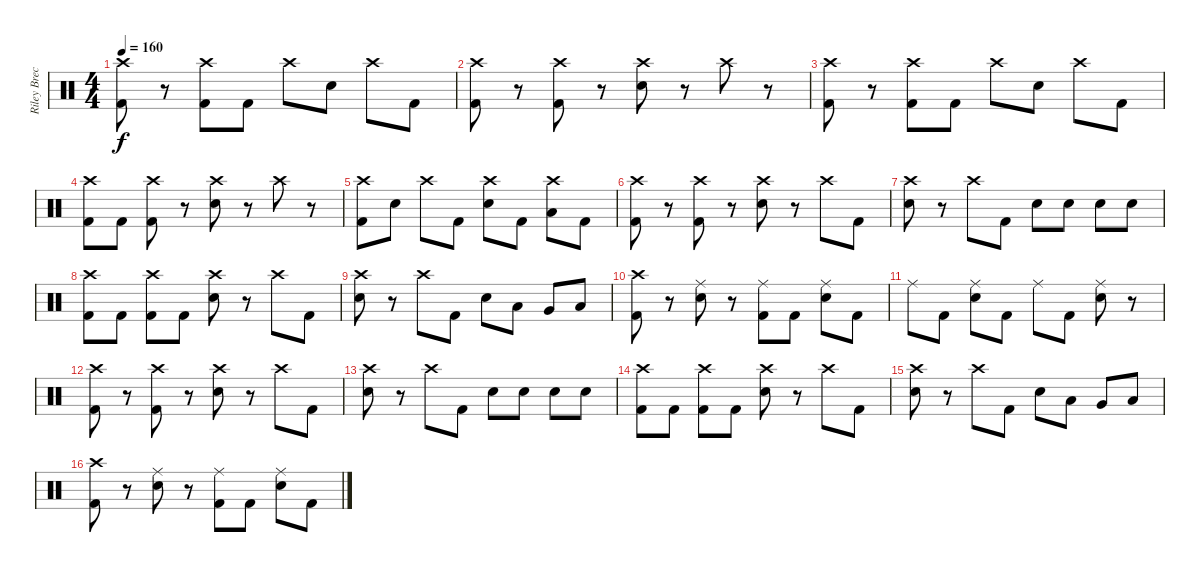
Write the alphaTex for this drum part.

\track ("Riley Breckenridge" "Riley Brec") {instrument percussion}
\staff {score}
\articulation defaults
\ts (4 4)
\tempo 160
\clef neutral
\ks c
("Kick (hit) 2" "Crash high (hit)").8{dy f} r.8 ("Kick (hit) 2" "Crash high (hit)").8 "Kick (hit) 2".8 "Crash high (hit)".8 "Electric Snare (hit)".8 "Crash high (hit)".8 "Kick (hit) 2".8 |
("Kick (hit) 2" "Crash high (hit)").8 r.8 ("Kick (hit) 2" "Crash high (hit)").8 r.8 ("Electric Snare (hit)" "Crash high (hit)").8 r.8 "Crash high (hit)".8 r.8 |
("Kick (hit) 2" "Crash high (hit)").8 r.8 ("Kick (hit) 2" "Crash high (hit)").8 "Kick (hit) 2".8 "Crash high (hit)".8 "Electric Snare (hit)".8 "Crash high (hit)".8 "Kick (hit) 2".8 |
("Kick (hit) 2" "Crash high (hit)").8 "Kick (hit) 2".8 ("Kick (hit) 2" "Crash high (hit)").8 r.8 ("Electric Snare (hit)" "Crash high (hit)").8 r.8 "Crash high (hit)".8 r.8 |
("Kick (hit) 2" "Crash high (hit)").8 "Electric Snare (hit)".8 "Crash high (hit)".8 "Kick (hit) 2".8 ("Electric Snare (hit)" "Crash high (hit)").8 "Kick (hit) 2".8 ("Low Floor Tom (hit)" "Crash high (hit)").8 "Kick (hit) 2".8 |
("Kick (hit) 2" "Crash high (hit)").8 r.8 ("Kick (hit) 2" "Crash high (hit)").8 r.8 ("Electric Snare (hit)" "Crash high (hit)").8 r.8 "Crash high (hit)".8 "Kick (hit) 2".8 |
("Electric Snare (hit)" "Crash high (hit)").8 r.8 "Crash high (hit)".8 "Kick (hit) 2".8 "Electric Snare (hit)".8 "Electric Snare (hit)".8 "Electric Snare (hit)".8 "Electric Snare (hit)".8 |
("Kick (hit) 2" "Crash high (hit)").8 "Kick (hit) 2".8 ("Kick (hit) 2" "Crash high (hit)").8 "Kick (hit) 2".8 ("Electric Snare (hit)" "Crash high (hit)").8 r.8 "Crash high (hit)".8 "Kick (hit) 2".8 |
("Electric Snare (hit)" "Crash high (hit)").8 r.8 "Crash high (hit)".8 "Kick (hit) 2".8 "Electric Snare (hit)".8 "Low Tom (hit)".8 "Very Low Tom (hit)".8 "Low Floor Tom (hit)".8 |
("Kick (hit) 2" "Crash high (hit)").8 r.8 ("Electric Snare (hit)" "Ride (middle)").8 r.8 ("Kick (hit) 2" "Ride (middle)").8 "Kick (hit) 2".8 ("Electric Snare (hit)" "Ride (middle)").8 "Kick (hit) 2".8 |
"Ride (middle)".8 "Kick (hit) 2".8 ("Electric Snare (hit)" "Ride (middle)").8 "Kick (hit) 2".8 "Ride (middle)".8 "Kick (hit) 2".8 ("Electric Snare (hit)" "Ride (middle)").8 r.8 |
("Kick (hit) 2" "Crash high (hit)").8 r.8 ("Kick (hit) 2" "Crash high (hit)").8 r.8 ("Electric Snare (hit)" "Crash high (hit)").8 r.8 "Crash high (hit)".8 "Kick (hit) 2".8 |
("Electric Snare (hit)" "Crash high (hit)").8 r.8 "Crash high (hit)".8 "Kick (hit) 2".8 "Electric Snare (hit)".8 "Electric Snare (hit)".8 "Electric Snare (hit)".8 "Electric Snare (hit)".8 |
("Kick (hit) 2" "Crash high (hit)").8 "Kick (hit) 2".8 ("Kick (hit) 2" "Crash high (hit)").8 "Kick (hit) 2".8 ("Electric Snare (hit)" "Crash high (hit)").8 r.8 "Crash high (hit)".8 "Kick (hit) 2".8 |
("Electric Snare (hit)" "Crash high (hit)").8 r.8 "Crash high (hit)".8 "Kick (hit) 2".8 "Electric Snare (hit)".8 "Low Tom (hit)".8 "Very Low Tom (hit)".8 "Low Floor Tom (hit)".8 |
("Kick (hit) 2" "Crash high (hit)").8 r.8 ("Electric Snare (hit)" "Ride (middle)").8 r.8 ("Kick (hit) 2" "Ride (middle)").8 "Kick (hit) 2".8 ("Electric Snare (hit)" "Ride (middle)").8 "Kick (hit) 2".8
